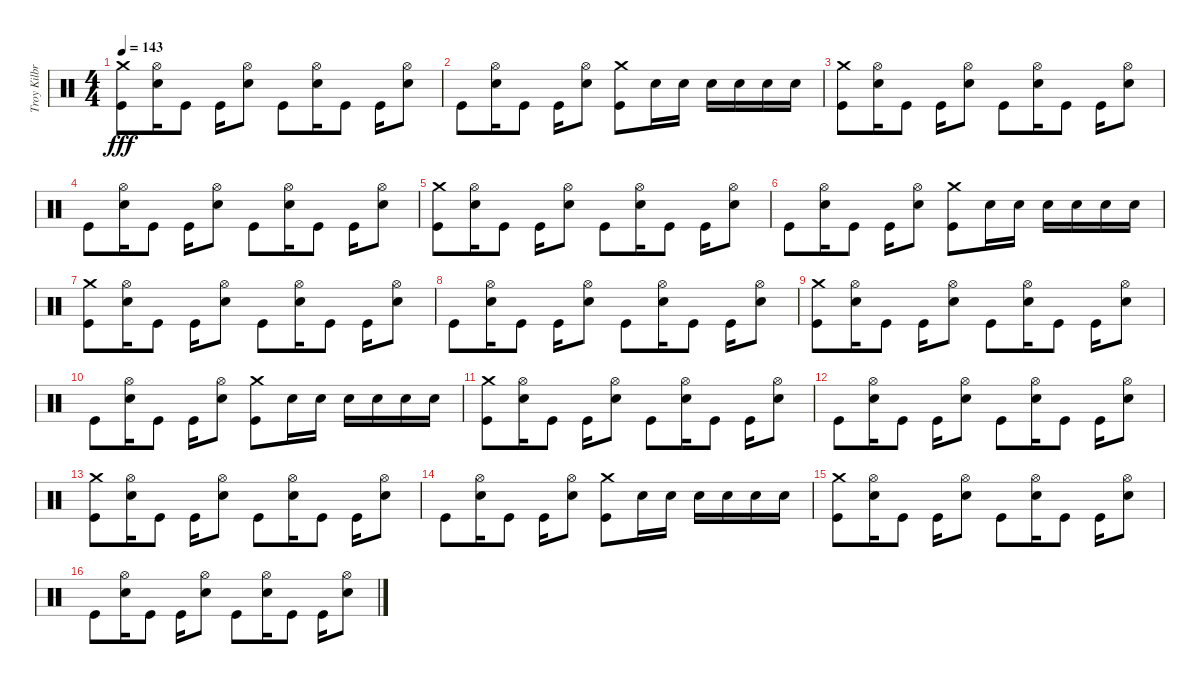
\track ("Troy Kilbride" "Troy Kilbr") {instrument percussion}
\staff {score}
\articulation defaults
\ts (4 4)
\tempo 143
\clef neutral
\ks c
("Crash medium (hit)" "Kick (hit)").8{dy fff} ("Hi-Hat (open)" "Electric Snare (hit)").16 "Kick (hit)".8 "Kick (hit)".16 ("Hi-Hat (open)" "Electric Snare (hit)").8 "Kick (hit)".8 ("Hi-Hat (open)" "Electric Snare (hit)").16 "Kick (hit)".8 "Kick (hit)".16 ("Hi-Hat (open)" "Electric Snare (hit)").8 |
"Kick (hit)".8 ("Hi-Hat (open)" "Electric Snare (hit)").16 "Kick (hit)".8 "Kick (hit)".16 ("Hi-Hat (open)" "Electric Snare (hit)").8 ("Crash medium (hit)" "Kick (hit)").8 "Electric Snare (hit)".16 "Electric Snare (hit)".16 "Electric Snare (hit)".16 "Electric Snare (hit)".16 "Electric Snare (hit)".16 "Electric Snare (hit)".16 |
("Crash medium (hit)" "Kick (hit)").8 ("Hi-Hat (open)" "Electric Snare (hit)").16 "Kick (hit)".8 "Kick (hit)".16 ("Hi-Hat (open)" "Electric Snare (hit)").8 "Kick (hit)".8 ("Hi-Hat (open)" "Electric Snare (hit)").16 "Kick (hit)".8 "Kick (hit)".16 ("Hi-Hat (open)" "Electric Snare (hit)").8 |
"Kick (hit)".8 ("Hi-Hat (open)" "Electric Snare (hit)").16 "Kick (hit)".8 "Kick (hit)".16 ("Hi-Hat (open)" "Electric Snare (hit)").8 "Kick (hit)".8 ("Hi-Hat (open)" "Electric Snare (hit)").16 "Kick (hit)".8 "Kick (hit)".16 ("Hi-Hat (open)" "Electric Snare (hit)").8 |
("Crash medium (hit)" "Kick (hit)").8 ("Hi-Hat (open)" "Electric Snare (hit)").16 "Kick (hit)".8 "Kick (hit)".16 ("Hi-Hat (open)" "Electric Snare (hit)").8 "Kick (hit)".8 ("Hi-Hat (open)" "Electric Snare (hit)").16 "Kick (hit)".8 "Kick (hit)".16 ("Hi-Hat (open)" "Electric Snare (hit)").8 |
"Kick (hit)".8 ("Hi-Hat (open)" "Electric Snare (hit)").16 "Kick (hit)".8 "Kick (hit)".16 ("Hi-Hat (open)" "Electric Snare (hit)").8 ("Crash medium (hit)" "Kick (hit)").8 "Electric Snare (hit)".16 "Electric Snare (hit)".16 "Electric Snare (hit)".16 "Electric Snare (hit)".16 "Electric Snare (hit)".16 "Electric Snare (hit)".16 |
("Crash medium (hit)" "Kick (hit)").8 ("Hi-Hat (open)" "Electric Snare (hit)").16 "Kick (hit)".8 "Kick (hit)".16 ("Hi-Hat (open)" "Electric Snare (hit)").8 "Kick (hit)".8 ("Hi-Hat (open)" "Electric Snare (hit)").16 "Kick (hit)".8 "Kick (hit)".16 ("Hi-Hat (open)" "Electric Snare (hit)").8 |
"Kick (hit)".8 ("Hi-Hat (open)" "Electric Snare (hit)").16 "Kick (hit)".8 "Kick (hit)".16 ("Hi-Hat (open)" "Electric Snare (hit)").8 "Kick (hit)".8 ("Hi-Hat (open)" "Electric Snare (hit)").16 "Kick (hit)".8 "Kick (hit)".16 ("Hi-Hat (open)" "Electric Snare (hit)").8 |
("Crash medium (hit)" "Kick (hit)").8 ("Hi-Hat (open)" "Electric Snare (hit)").16 "Kick (hit)".8 "Kick (hit)".16 ("Hi-Hat (open)" "Electric Snare (hit)").8 "Kick (hit)".8 ("Hi-Hat (open)" "Electric Snare (hit)").16 "Kick (hit)".8 "Kick (hit)".16 ("Hi-Hat (open)" "Electric Snare (hit)").8 |
"Kick (hit)".8 ("Hi-Hat (open)" "Electric Snare (hit)").16 "Kick (hit)".8 "Kick (hit)".16 ("Hi-Hat (open)" "Electric Snare (hit)").8 ("Crash medium (hit)" "Kick (hit)").8 "Electric Snare (hit)".16 "Electric Snare (hit)".16 "Electric Snare (hit)".16 "Electric Snare (hit)".16 "Electric Snare (hit)".16 "Electric Snare (hit)".16 |
("Crash medium (hit)" "Kick (hit)").8 ("Hi-Hat (open)" "Electric Snare (hit)").16 "Kick (hit)".8 "Kick (hit)".16 ("Hi-Hat (open)" "Electric Snare (hit)").8 "Kick (hit)".8 ("Hi-Hat (open)" "Electric Snare (hit)").16 "Kick (hit)".8 "Kick (hit)".16 ("Hi-Hat (open)" "Electric Snare (hit)").8 |
"Kick (hit)".8 ("Hi-Hat (open)" "Electric Snare (hit)").16 "Kick (hit)".8 "Kick (hit)".16 ("Hi-Hat (open)" "Electric Snare (hit)").8 "Kick (hit)".8 ("Hi-Hat (open)" "Electric Snare (hit)").16 "Kick (hit)".8 "Kick (hit)".16 ("Hi-Hat (open)" "Electric Snare (hit)").8 |
("Crash medium (hit)" "Kick (hit)").8 ("Hi-Hat (open)" "Electric Snare (hit)").16 "Kick (hit)".8 "Kick (hit)".16 ("Hi-Hat (open)" "Electric Snare (hit)").8 "Kick (hit)".8 ("Hi-Hat (open)" "Electric Snare (hit)").16 "Kick (hit)".8 "Kick (hit)".16 ("Hi-Hat (open)" "Electric Snare (hit)").8 |
"Kick (hit)".8 ("Hi-Hat (open)" "Electric Snare (hit)").16 "Kick (hit)".8 "Kick (hit)".16 ("Hi-Hat (open)" "Electric Snare (hit)").8 ("Crash medium (hit)" "Kick (hit)").8 "Electric Snare (hit)".16 "Electric Snare (hit)".16 "Electric Snare (hit)".16 "Electric Snare (hit)".16 "Electric Snare (hit)".16 "Electric Snare (hit)".16 |
("Crash medium (hit)" "Kick (hit)").8 ("Hi-Hat (open)" "Electric Snare (hit)").16 "Kick (hit)".8 "Kick (hit)".16 ("Hi-Hat (open)" "Electric Snare (hit)").8 "Kick (hit)".8 ("Hi-Hat (open)" "Electric Snare (hit)").16 "Kick (hit)".8 "Kick (hit)".16 ("Hi-Hat (open)" "Electric Snare (hit)").8 |
"Kick (hit)".8 ("Hi-Hat (open)" "Electric Snare (hit)").16 "Kick (hit)".8 "Kick (hit)".16 ("Hi-Hat (open)" "Electric Snare (hit)").8 "Kick (hit)".8 ("Hi-Hat (open)" "Electric Snare (hit)").16 "Kick (hit)".8 "Kick (hit)".16 ("Hi-Hat (open)" "Electric Snare (hit)").8
